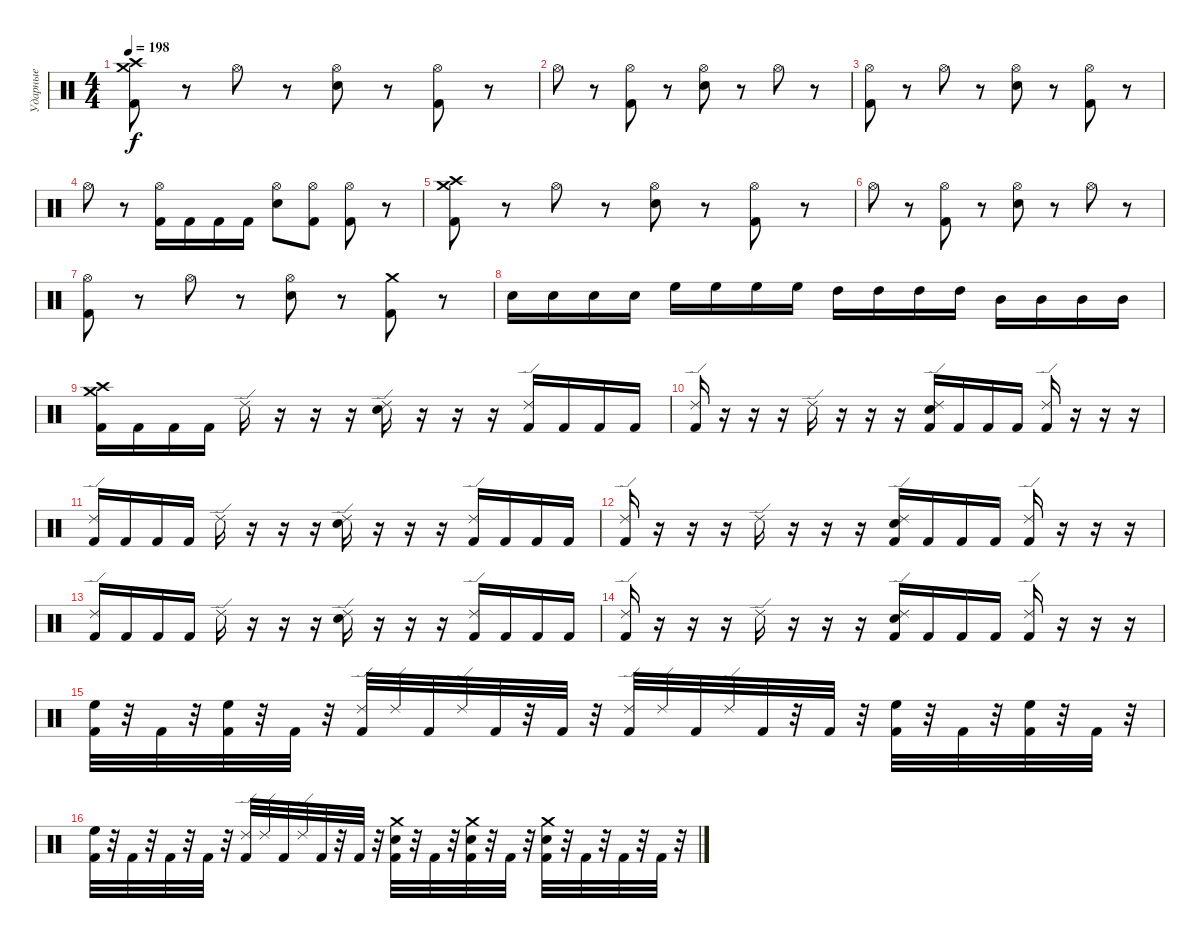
\track ("Ударные" "Ударные") {instrument percussion}
\staff {score}
\articulation defaults
\ts (4 4)
\tempo 198
\clef neutral
\ks c
("Crash medium (hit)" "Crash high (hit)" "Kick (hit) 2").8{dy f} r.8 "Hi-Hat (open)".8 r.8 ("Hi-Hat (open)" "Electric Snare (hit)").8 r.8 ("Hi-Hat (open)" "Kick (hit) 2").8 r.8 |
"Hi-Hat (open)".8 r.8 ("Hi-Hat (open)" "Kick (hit) 2").8 r.8 ("Hi-Hat (open)" "Electric Snare (hit)").8 r.8 "Hi-Hat (open)".8 r.8 |
("Hi-Hat (open)" "Kick (hit) 2").8 r.8 "Hi-Hat (open)".8 r.8 ("Hi-Hat (open)" "Electric Snare (hit)").8 r.8 ("Hi-Hat (open)" "Kick (hit) 2").8 r.8 |
"Hi-Hat (open)".8 r.8 ("Hi-Hat (open)" "Kick (hit) 2").16 "Kick (hit) 2".16 "Kick (hit) 2".16 "Kick (hit) 2".16 ("Hi-Hat (open)" "Electric Snare (hit)").8 ("Hi-Hat (open)" "Kick (hit) 2").8 ("Hi-Hat (open)" "Kick (hit) 2").8 r.8 |
("Crash medium (hit)" "Crash high (hit)" "Kick (hit) 2").8 r.8 "Hi-Hat (open)".8 r.8 ("Hi-Hat (open)" "Electric Snare (hit)").8 r.8 ("Hi-Hat (open)" "Kick (hit) 2").8 r.8 |
"Hi-Hat (open)".8 r.8 ("Hi-Hat (open)" "Kick (hit) 2").8 r.8 ("Hi-Hat (open)" "Electric Snare (hit)").8 r.8 "Hi-Hat (open)".8 r.8 |
("Hi-Hat (open)" "Kick (hit) 2").8 r.8 "Hi-Hat (open)".8 r.8 ("Hi-Hat (open)" "Electric Snare (hit)").8 r.8 ("Crash medium (hit)" "Kick (hit) 2").8 r.8 |
"Electric Snare (hit)".16 "Electric Snare (hit)".16 "Electric Snare (hit)".16 "Electric Snare (hit)".16 "High Floor Tom (hit)".16 "High Floor Tom (hit)".16 "High Floor Tom (hit)".16 "High Floor Tom (hit)".16 "High Tom (hit)".16 "High Tom (hit)".16 "High Tom (hit)".16 "High Tom (hit)".16 "Mid Tom (hit)".16 "Mid Tom (hit)".16 "Mid Tom (hit)".16 "Mid Tom (hit)".16 |
("Crash medium (hit)" "Crash high (hit)" "Kick (hit) 2").16 "Kick (hit) 2".16 "Kick (hit) 2".16 "Kick (hit) 2".16 "Ride (edge) 2".16 r.16 r.16 r.16 ("Ride (edge) 2" "Electric Snare (hit)").16 r.16 r.16 r.16 ("Ride (edge) 2" "Kick (hit) 2").16 "Kick (hit) 2".16 "Kick (hit) 2".16 "Kick (hit) 2".16 |
("Ride (edge) 2" "Kick (hit) 2").16 r.16 r.16 r.16 "Ride (edge) 2".16 r.16 r.16 r.16 ("Ride (edge) 2" "Electric Snare (hit)" "Kick (hit) 2").16 "Kick (hit) 2".16 "Kick (hit) 2".16 "Kick (hit) 2".16 ("Ride (edge) 2" "Kick (hit) 2").16 r.16 r.16 r.16 |
("Ride (edge) 2" "Kick (hit) 2").16 "Kick (hit) 2".16 "Kick (hit) 2".16 "Kick (hit) 2".16 "Ride (edge) 2".16 r.16 r.16 r.16 ("Ride (edge) 2" "Electric Snare (hit)").16 r.16 r.16 r.16 ("Ride (edge) 2" "Kick (hit) 2").16 "Kick (hit) 2".16 "Kick (hit) 2".16 "Kick (hit) 2".16 |
("Ride (edge) 2" "Kick (hit) 2").16 r.16 r.16 r.16 "Ride (edge) 2".16 r.16 r.16 r.16 ("Ride (edge) 2" "Electric Snare (hit)" "Kick (hit) 2").16 "Kick (hit) 2".16 "Kick (hit) 2".16 "Kick (hit) 2".16 ("Ride (edge) 2" "Kick (hit) 2").16 r.16 r.16 r.16 |
("Ride (edge) 2" "Kick (hit) 2").16 "Kick (hit) 2".16 "Kick (hit) 2".16 "Kick (hit) 2".16 "Ride (edge) 2".16 r.16 r.16 r.16 ("Ride (edge) 2" "Electric Snare (hit)").16 r.16 r.16 r.16 ("Ride (edge) 2" "Kick (hit) 2").16 "Kick (hit) 2".16 "Kick (hit) 2".16 "Kick (hit) 2".16 |
("Ride (edge) 2" "Kick (hit) 2").16 r.16 r.16 r.16 "Ride (edge) 2".16 r.16 r.16 r.16 ("Ride (edge) 2" "Electric Snare (hit)" "Kick (hit) 2").16 "Kick (hit) 2".16 "Kick (hit) 2".16 "Kick (hit) 2".16 ("Ride (edge) 2" "Kick (hit) 2").16 r.16 r.16 r.16 |
("Kick (hit) 2" "High Floor Tom (hit)").32 r.32 "Kick (hit) 2".32 r.32 ("Kick (hit) 2" "High Floor Tom (hit)").32 r.32 "Kick (hit) 2".32 r.32 ("Kick (hit) 2" "Ride (edge) 2").32 "Ride (edge) 2".32 "Kick (hit) 2".32 "Ride (edge) 2".32 "Kick (hit) 2".32 r.32 "Kick (hit) 2".32 r.32 ("Kick (hit) 2" "Ride (edge) 2").32 "Ride (edge) 2".32 "Kick (hit) 2".32 "Ride (edge) 2".32 "Kick (hit) 2".32 r.32 "Kick (hit) 2".32 r.32 ("Kick (hit) 2" "High Floor Tom (hit)").32 r.32 "Kick (hit) 2".32 r.32 ("Kick (hit) 2" "High Floor Tom (hit)").32 r.32 "Kick (hit) 2".32 r.32 |
("Kick (hit) 2" "High Floor Tom (hit)").32 r.32 "Kick (hit) 2".32 r.32 "Kick (hit) 2".32 r.32 "Kick (hit) 2".32 r.32 ("Kick (hit) 2" "Ride (edge) 2").32 "Ride (edge) 2".32 "Kick (hit) 2".32 "Ride (edge) 2".32 "Kick (hit) 2".32 r.32 "Kick (hit) 2".32 r.32 ("Kick (hit) 2" "Electric Snare (hit)" "Crash medium (hit)").32 r.32 "Kick (hit) 2".32 r.32 ("Kick (hit) 2" "Electric Snare (hit)" "Crash medium (hit)").32 r.32 "Kick (hit) 2".32 r.32 ("Kick (hit) 2" "Electric Snare (hit)" "Crash medium (hit)").32 r.32 "Kick (hit) 2".32 r.32 "Kick (hit) 2".32 r.32 "Kick (hit) 2".32 r.32
